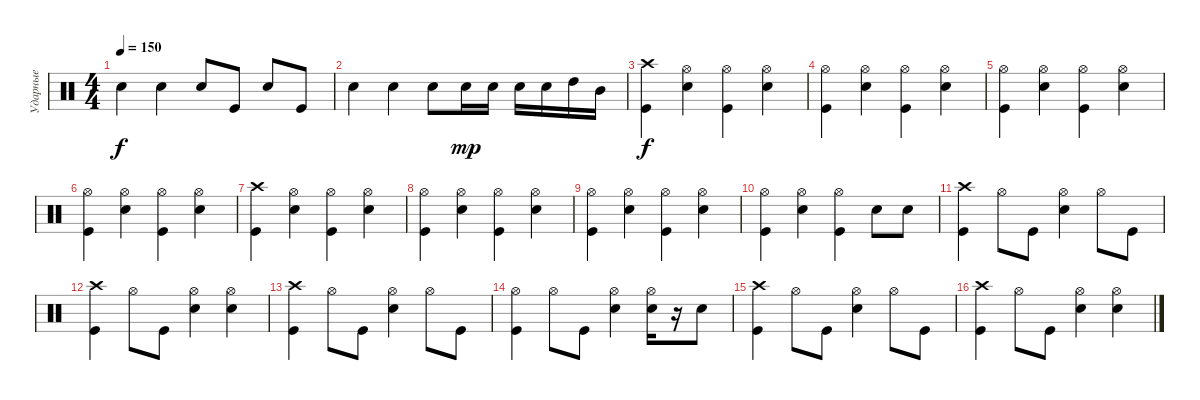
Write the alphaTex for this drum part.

\track ("Ударные" "Ударные") {instrument percussion}
\staff {score}
\articulation defaults
\ts (4 4)
\tempo 150
\clef neutral
\ks c "Snare (hit) 2".4{dy f} "Snare (hit) 2".4 "Snare (hit) 2".8 "Kick (hit)".8 "Snare (hit) 2".8 "Kick (hit)".8
|
"Snare (hit) 2".4 "Snare (hit) 2".4 "Snare (hit) 2".8 "Snare (hit) 2".16{dy mp} "Snare (hit) 2".16 "Snare (hit) 2".16 "Snare (hit) 2".16 "High Tom (hit)".16 "Mid Tom (hit)".16 |
("Crash high (hit)" "Kick (hit)").4{dy f} ("Hi-Hat (open)" "Snare (hit) 2").4 ("Hi-Hat (open)" "Kick (hit)").4 ("Hi-Hat (open)" "Snare (hit) 2").4 |
("Hi-Hat (open)" "Kick (hit)").4 ("Hi-Hat (open)" "Snare (hit) 2").4 ("Hi-Hat (open)" "Kick (hit)").4 ("Hi-Hat (open)" "Snare (hit) 2").4 |
("Hi-Hat (open)" "Kick (hit)").4 ("Hi-Hat (open)" "Snare (hit) 2").4 ("Hi-Hat (open)" "Kick (hit)").4 ("Hi-Hat (open)" "Snare (hit) 2").4 |
("Hi-Hat (open)" "Kick (hit)").4 ("Hi-Hat (open)" "Snare (hit) 2").4 ("Hi-Hat (open)" "Kick (hit)").4 ("Hi-Hat (open)" "Snare (hit) 2").4 |
("Crash high (hit)" "Kick (hit)").4 ("Hi-Hat (open)" "Snare (hit) 2").4 ("Hi-Hat (open)" "Kick (hit)").4 ("Hi-Hat (open)" "Snare (hit) 2").4 |
("Hi-Hat (open)" "Kick (hit)").4 ("Hi-Hat (open)" "Snare (hit) 2").4 ("Hi-Hat (open)" "Kick (hit)").4 ("Hi-Hat (open)" "Snare (hit) 2").4 |
("Hi-Hat (open)" "Kick (hit)").4 ("Hi-Hat (open)" "Snare (hit) 2").4 ("Hi-Hat (open)" "Kick (hit)").4 ("Hi-Hat (open)" "Snare (hit) 2").4 |
("Hi-Hat (open)" "Kick (hit)").4 ("Hi-Hat (open)" "Snare (hit) 2").4 ("Hi-Hat (open)" "Kick (hit)").4 "Snare (hit) 2".8 "Snare (hit) 2".8 |
("Crash high (hit)" "Kick (hit)").4 "Hi-Hat (open)".8 "Kick (hit)".8 ("Hi-Hat (open)" "Snare (hit) 2").4 "Hi-Hat (open)".8 "Kick (hit)".8 |
("Crash high (hit)" "Kick (hit)").4 "Hi-Hat (open)".8 "Kick (hit)".8 ("Hi-Hat (open)" "Snare (hit) 2").4 ("Hi-Hat (open)" "Snare (hit) 2").4 |
("Crash high (hit)" "Kick (hit)").4 "Hi-Hat (open)".8 "Kick (hit)".8 ("Hi-Hat (open)" "Snare (hit) 2").4 "Hi-Hat (open)".8 "Kick (hit)".8 |
("Hi-Hat (open)" "Kick (hit)").4 "Hi-Hat (open)".8 "Kick (hit)".8 ("Hi-Hat (open)" "Snare (hit) 2").4 ("Hi-Hat (open)" "Snare (hit) 2").16 r.16 "Snare (hit) 2".8 |
("Crash high (hit)" "Kick (hit)").4 "Hi-Hat (open)".8 "Kick (hit)".8 ("Hi-Hat (open)" "Snare (hit) 2").4 "Hi-Hat (open)".8 "Kick (hit)".8 |
("Crash high (hit)" "Kick (hit)").4 "Hi-Hat (open)".8 "Kick (hit)".8 ("Hi-Hat (open)" "Snare (hit) 2").4 ("Hi-Hat (open)" "Snare (hit) 2").4
